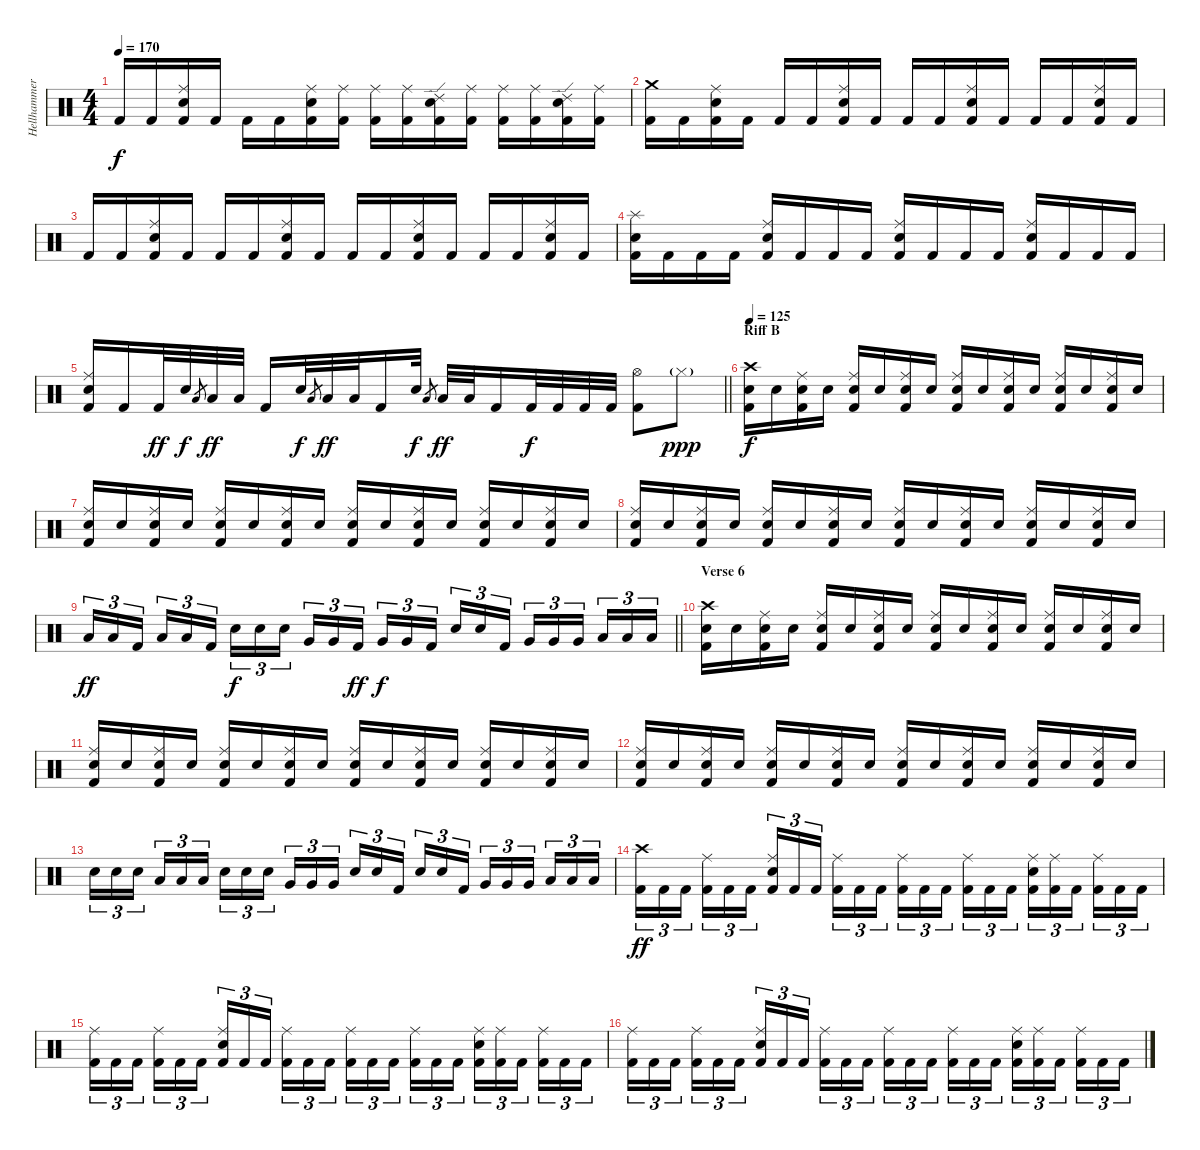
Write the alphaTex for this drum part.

\track ("Hellhammer" "Hellhammer") {instrument percussion}
\staff {score}
\articulation defaults
\ts (4 4)
\tempo 170
\clef neutral
\ks c "Kick (hit) 2".16{dy f} "Kick (hit) 2".16
("Ride (middle)" "Snare (hit) 2" "Kick (hit) 2").16 "Kick (hit) 2".16 "Kick (hit) 2".16 "Kick (hit) 2".16 ("Ride (middle)" "Snare (hit) 2" "Kick (hit) 2").16 ("Ride (middle)" "Kick (hit) 2").16 ("Ride (middle)" "Kick (hit) 2").16 ("Ride (middle)" "Kick (hit) 2").16 ("Ride (edge) 2" "Snare (hit) 2" "Kick (hit) 2").16 ("Ride (middle)" "Kick (hit) 2").16 ("Ride (middle)" "Kick (hit) 2").16 ("Ride (middle)" "Kick (hit) 2").16 ("Ride (edge) 2" "Snare (hit) 2" "Kick (hit) 2").16 ("Ride (middle)" "Kick (hit) 2").16 |
("Crash medium (hit)" "Kick (hit) 2").16 "Kick (hit) 2".16 ("Ride (middle)" "Snare (hit) 2" "Kick (hit) 2").16 "Kick (hit) 2".16 "Kick (hit) 2".16 "Kick (hit) 2".16 ("Ride (middle)" "Snare (hit) 2" "Kick (hit) 2").16 "Kick (hit) 2".16 "Kick (hit) 2".16 "Kick (hit) 2".16 ("Ride (middle)" "Snare (hit) 2" "Kick (hit) 2").16 "Kick (hit) 2".16 "Kick (hit) 2".16 "Kick (hit) 2".16 ("Ride (middle)" "Snare (hit) 2" "Kick (hit) 2").16 "Kick (hit) 2".16 |
"Kick (hit) 2".16 "Kick (hit) 2".16 ("Ride (middle)" "Snare (hit) 2" "Kick (hit) 2").16 "Kick (hit) 2".16 "Kick (hit) 2".16 "Kick (hit) 2".16 ("Ride (middle)" "Snare (hit) 2" "Kick (hit) 2").16 "Kick (hit) 2".16 "Kick (hit) 2".16 "Kick (hit) 2".16 ("Ride (middle)" "Snare (hit) 2" "Kick (hit) 2").16 "Kick (hit) 2".16 "Kick (hit) 2".16 "Kick (hit) 2".16 ("Ride (middle)" "Snare (hit) 2" "Kick (hit) 2").16 "Kick (hit) 2".16 |
("Splash (hit)" "Snare (hit) 2" "Kick (hit) 2").16 "Kick (hit) 2".16 "Kick (hit) 2".16 "Kick (hit) 2".16 ("Ride (middle)" "Snare (hit) 2" "Kick (hit) 2").16 "Kick (hit) 2".16 "Kick (hit) 2".16 "Kick (hit) 2".16 ("Ride (middle)" "Snare (hit) 2" "Kick (hit) 2").16 "Kick (hit) 2".16 "Kick (hit) 2".16 "Kick (hit) 2".16 ("Ride (middle)" "Snare (hit) 2" "Kick (hit) 2").16 "Kick (hit) 2".16 "Kick (hit) 2".16 "Kick (hit) 2".16 |
\barLineRight lightlight
("Ride (middle)" "Snare (hit) 2" "Kick (hit) 2").16 "Kick (hit) 2".16 "Kick (hit) 2".32{dy ff} "Snare (hit) 2".32{dy f} "Low Tom (hit)".8{gr} "Low Tom (hit)".32{dy ff} "Low Tom (hit)".32 "Kick (hit) 2".16 "Snare (hit) 2".32{dy f} "Low Tom (hit)".8{gr} "Low Tom (hit)".32{dy ff} "Low Tom (hit)".32 "Kick (hit) 2".16 "Snare (hit) 2".32{dy f} "Low Tom (hit)".8{gr} "Low Tom (hit)".32{dy ff} "Low Tom (hit)".32 "Kick (hit) 2".16 "Kick (hit) 2".32{dy f} "Kick (hit) 2".32 "Kick (hit) 2".32 "Kick (hit) 2".32 ("Hi-Hat (open)" "Kick (hit) 2").8 "Hi-Hat (closed)"{g}.8{dy ppp} |
\section ("" "Riff B")
\tempo 125
("Crash high (hit)" "Snare (hit) 2" "Kick (hit) 2").16{dy f} "Snare (hit) 2".16 ("Ride (middle)" "Snare (hit) 2" "Kick (hit) 2").16 "Snare (hit) 2".16 ("Ride (middle)" "Snare (hit) 2" "Kick (hit) 2").16 "Snare (hit) 2".16 ("Ride (middle)" "Snare (hit) 2" "Kick (hit) 2").16 "Snare (hit) 2".16 ("Ride (middle)" "Snare (hit) 2" "Kick (hit) 2").16 "Snare (hit) 2".16 ("Ride (middle)" "Snare (hit) 2" "Kick (hit) 2").16 "Snare (hit) 2".16 ("Ride (middle)" "Snare (hit) 2" "Kick (hit) 2").16 "Snare (hit) 2".16 ("Ride (middle)" "Snare (hit) 2" "Kick (hit) 2").16 "Snare (hit) 2".16 |
("Ride (middle)" "Snare (hit) 2" "Kick (hit) 2").16 "Snare (hit) 2".16 ("Ride (middle)" "Snare (hit) 2" "Kick (hit) 2").16 "Snare (hit) 2".16 ("Ride (middle)" "Snare (hit) 2" "Kick (hit) 2").16 "Snare (hit) 2".16 ("Ride (middle)" "Snare (hit) 2" "Kick (hit) 2").16 "Snare (hit) 2".16 ("Ride (middle)" "Snare (hit) 2" "Kick (hit) 2").16 "Snare (hit) 2".16 ("Ride (middle)" "Snare (hit) 2" "Kick (hit) 2").16 "Snare (hit) 2".16 ("Ride (middle)" "Snare (hit) 2" "Kick (hit) 2").16 "Snare (hit) 2".16 ("Ride (middle)" "Snare (hit) 2" "Kick (hit) 2").16 "Snare (hit) 2".16 |
("Ride (middle)" "Snare (hit) 2" "Kick (hit) 2").16 "Snare (hit) 2".16 ("Ride (middle)" "Snare (hit) 2" "Kick (hit) 2").16 "Snare (hit) 2".16 ("Ride (middle)" "Snare (hit) 2" "Kick (hit) 2").16 "Snare (hit) 2".16 ("Ride (middle)" "Snare (hit) 2" "Kick (hit) 2").16 "Snare (hit) 2".16 ("Ride (middle)" "Snare (hit) 2" "Kick (hit) 2").16 "Snare (hit) 2".16 ("Ride (middle)" "Snare (hit) 2" "Kick (hit) 2").16 "Snare (hit) 2".16 ("Ride (middle)" "Snare (hit) 2" "Kick (hit) 2").16 "Snare (hit) 2".16 ("Ride (middle)" "Snare (hit) 2" "Kick (hit) 2").16 "Snare (hit) 2".16 |
\barLineRight lightlight "Low Tom (hit)".16{tu (3 2) dy ff} "Low Tom (hit)".16{tu (3 2)} "Kick (hit) 2".16{tu (3 2) beam splitsecondary} "Low Tom (hit)".16{tu (3 2)} "Low Tom (hit)".16{tu (3 2)} "Kick (hit) 2".16{tu (3 2)} "Snare (hit) 2".16{tu (3 2) dy f} "Snare (hit) 2".16{tu (3 2)} "Snare (hit) 2".16{tu (3 2) beam splitsecondary} "Very Low Tom (hit)".16{tu (3 2)} "Very Low Tom (hit)".16{tu (3 2)} "Kick (hit) 2".16{tu (3 2) dy ff} "Very Low Tom (hit)".16{tu (3 2) dy f} "Very Low Tom (hit)".16{tu (3 2)} "Kick (hit) 2".16{tu (3 2) beam splitsecondary} "Snare (hit) 2".16{tu (3 2)} "Snare (hit) 2".16{tu (3 2)} "Kick (hit) 2".16{tu (3 2)} "Very Low Tom (hit)".16{tu (3 2)} "Very Low Tom (hit)".16{tu (3 2)} "Very Low Tom (hit)".16{tu (3 2) beam splitsecondary} "Low Floor Tom (hit)".16{tu (3 2)} "Low Floor Tom (hit)".16{tu (3 2)} "Low Floor Tom (hit)".16{tu (3 2)}
|
\section ("" "Verse 6")
("Crash high (hit)" "Snare (hit) 2" "Kick (hit) 2").16 "Snare (hit) 2".16 ("Ride (middle)" "Snare (hit) 2" "Kick (hit) 2").16 "Snare (hit) 2".16 ("Ride (middle)" "Snare (hit) 2" "Kick (hit) 2").16 "Snare (hit) 2".16 ("Ride (middle)" "Snare (hit) 2" "Kick (hit) 2").16 "Snare (hit) 2".16 ("Ride (middle)" "Snare (hit) 2" "Kick (hit) 2").16 "Snare (hit) 2".16 ("Ride (middle)" "Snare (hit) 2" "Kick (hit) 2").16 "Snare (hit) 2".16 ("Ride (middle)" "Snare (hit) 2" "Kick (hit) 2").16 "Snare (hit) 2".16 ("Ride (middle)" "Snare (hit) 2" "Kick (hit) 2").16 "Snare (hit) 2".16 |
("Ride (middle)" "Snare (hit) 2" "Kick (hit) 2").16 "Snare (hit) 2".16 ("Ride (middle)" "Snare (hit) 2" "Kick (hit) 2").16 "Snare (hit) 2".16 ("Ride (middle)" "Snare (hit) 2" "Kick (hit) 2").16 "Snare (hit) 2".16 ("Ride (middle)" "Snare (hit) 2" "Kick (hit) 2").16 "Snare (hit) 2".16 ("Ride (middle)" "Snare (hit) 2" "Kick (hit) 2").16 "Snare (hit) 2".16 ("Ride (middle)" "Snare (hit) 2" "Kick (hit) 2").16 "Snare (hit) 2".16 ("Ride (middle)" "Snare (hit) 2" "Kick (hit) 2").16 "Snare (hit) 2".16 ("Ride (middle)" "Snare (hit) 2" "Kick (hit) 2").16 "Snare (hit) 2".16 |
("Ride (middle)" "Snare (hit) 2" "Kick (hit) 2").16 "Snare (hit) 2".16 ("Ride (middle)" "Snare (hit) 2" "Kick (hit) 2").16 "Snare (hit) 2".16 ("Ride (middle)" "Snare (hit) 2" "Kick (hit) 2").16 "Snare (hit) 2".16 ("Ride (middle)" "Snare (hit) 2" "Kick (hit) 2").16 "Snare (hit) 2".16 ("Ride (middle)" "Snare (hit) 2" "Kick (hit) 2").16 "Snare (hit) 2".16 ("Ride (middle)" "Snare (hit) 2" "Kick (hit) 2").16 "Snare (hit) 2".16 ("Ride (middle)" "Snare (hit) 2" "Kick (hit) 2").16 "Snare (hit) 2".16 ("Ride (middle)" "Snare (hit) 2" "Kick (hit) 2").16 "Snare (hit) 2".16 |
"Snare (hit) 2".16{tu (3 2)} "Snare (hit) 2".16{tu (3 2)} "Snare (hit) 2".16{tu (3 2) beam splitsecondary} "Low Tom (hit)".16{tu (3 2)} "Low Tom (hit)".16{tu (3 2)} "Low Tom (hit)".16{tu (3 2)} "Snare (hit) 2".16{tu (3 2)} "Snare (hit) 2".16{tu (3 2)} "Snare (hit) 2".16{tu (3 2) beam splitsecondary} "Very Low Tom (hit)".16{tu (3 2)} "Very Low Tom (hit)".16{tu (3 2)} "Very Low Tom (hit)".16{tu (3 2)} "Snare (hit) 2".16{tu (3 2)} "Snare (hit) 2".16{tu (3 2)} "Kick (hit) 2".16{tu (3 2) beam splitsecondary} "Snare (hit) 2".16{tu (3 2)} "Snare (hit) 2".16{tu (3 2)} "Kick (hit) 2".16{tu (3 2)} "Very Low Tom (hit)".16{tu (3 2)} "Very Low Tom (hit)".16{tu (3 2)} "Very Low Tom (hit)".16{tu (3 2) beam splitsecondary} "Low Floor Tom (hit)".16{tu (3 2)} "Low Floor Tom (hit)".16{tu (3 2)} "Low Floor Tom (hit)".16{tu (3 2)} |
("Crash high (hit)" "Kick (hit) 2").16{tu (3 2) dy ff} "Kick (hit) 2".16{tu (3 2)} "Kick (hit) 2".16{tu (3 2) beam splitsecondary} ("Ride (middle)" "Kick (hit) 2").16{tu (3 2)} "Kick (hit) 2".16{tu (3 2)} "Kick (hit) 2".16{tu (3 2)} ("Ride (middle)" "Snare (hit) 2" "Kick (hit) 2").16{tu (3 2)} "Kick (hit) 2".16{tu (3 2)} "Kick (hit) 2".16{tu (3 2) beam splitsecondary} ("Ride (middle)" "Kick (hit) 2").16{tu (3 2)} "Kick (hit) 2".16{tu (3 2)} "Kick (hit) 2".16{tu (3 2)} ("Ride (middle)" "Kick (hit) 2").16{tu (3 2)} "Kick (hit) 2".16{tu (3 2)} "Kick (hit) 2".16{tu (3 2) beam splitsecondary} ("Ride (middle)" "Kick (hit) 2").16{tu (3 2)} "Kick (hit) 2".16{tu (3 2)} "Kick (hit) 2".16{tu (3 2)} ("Ride (middle)" "Snare (hit) 2" "Kick (hit) 2").16{tu (3 2)} ("Ride (middle)" "Kick (hit) 2").16{tu (3 2)} "Kick (hit) 2".16{tu (3 2) beam splitsecondary} ("Ride (middle)" "Kick (hit) 2").16{tu (3 2)} "Kick (hit) 2".16{tu (3 2)} "Kick (hit) 2".16{tu (3 2)} |
("Ride (middle)" "Kick (hit) 2").16{tu (3 2)} "Kick (hit) 2".16{tu (3 2)} "Kick (hit) 2".16{tu (3 2) beam splitsecondary} ("Ride (middle)" "Kick (hit) 2").16{tu (3 2)} "Kick (hit) 2".16{tu (3 2)} "Kick (hit) 2".16{tu (3 2)} ("Ride (middle)" "Snare (hit) 2" "Kick (hit) 2").16{tu (3 2)} "Kick (hit) 2".16{tu (3 2)} "Kick (hit) 2".16{tu (3 2) beam splitsecondary} ("Ride (middle)" "Kick (hit) 2").16{tu (3 2)} "Kick (hit) 2".16{tu (3 2)} "Kick (hit) 2".16{tu (3 2)} ("Ride (middle)" "Kick (hit) 2").16{tu (3 2)} "Kick (hit) 2".16{tu (3 2)} "Kick (hit) 2".16{tu (3 2) beam splitsecondary} ("Ride (middle)" "Kick (hit) 2").16{tu (3 2)} "Kick (hit) 2".16{tu (3 2)} "Kick (hit) 2".16{tu (3 2)} ("Ride (middle)" "Snare (hit) 2" "Kick (hit) 2").16{tu (3 2)} ("Ride (middle)" "Kick (hit) 2").16{tu (3 2)} "Kick (hit) 2".16{tu (3 2) beam splitsecondary} ("Ride (middle)" "Kick (hit) 2").16{tu (3 2)} "Kick (hit) 2".16{tu (3 2)} "Kick (hit) 2".16{tu (3 2)} |
("Ride (middle)" "Kick (hit) 2").16{tu (3 2)} "Kick (hit) 2".16{tu (3 2)} "Kick (hit) 2".16{tu (3 2) beam splitsecondary} ("Ride (middle)" "Kick (hit) 2").16{tu (3 2)} "Kick (hit) 2".16{tu (3 2)} "Kick (hit) 2".16{tu (3 2)} ("Ride (middle)" "Snare (hit) 2" "Kick (hit) 2").16{tu (3 2)} "Kick (hit) 2".16{tu (3 2)} "Kick (hit) 2".16{tu (3 2) beam splitsecondary} ("Ride (middle)" "Kick (hit) 2").16{tu (3 2)} "Kick (hit) 2".16{tu (3 2)} "Kick (hit) 2".16{tu (3 2)} ("Ride (middle)" "Kick (hit) 2").16{tu (3 2)} "Kick (hit) 2".16{tu (3 2)} "Kick (hit) 2".16{tu (3 2) beam splitsecondary} ("Ride (middle)" "Kick (hit) 2").16{tu (3 2)} "Kick (hit) 2".16{tu (3 2)} "Kick (hit) 2".16{tu (3 2)} ("Ride (middle)" "Snare (hit) 2" "Kick (hit) 2").16{tu (3 2)} ("Ride (middle)" "Kick (hit) 2").16{tu (3 2)} "Kick (hit) 2".16{tu (3 2) beam splitsecondary} ("Ride (middle)" "Kick (hit) 2").16{tu (3 2)} "Kick (hit) 2".16{tu (3 2)} "Kick (hit) 2".16{tu (3 2)}
